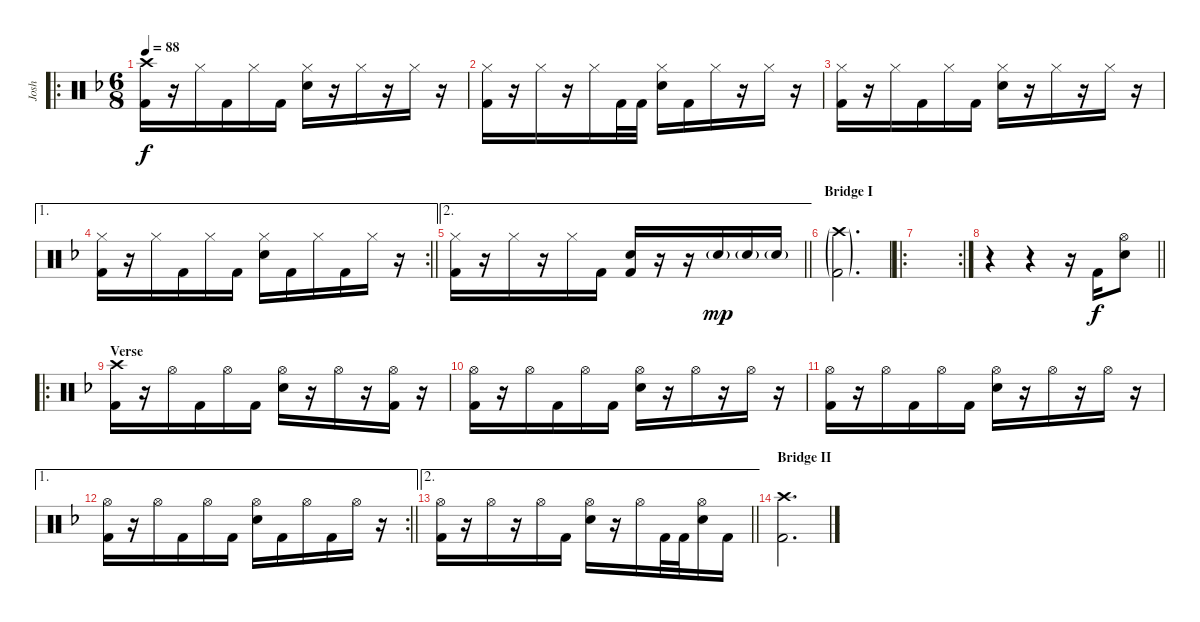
\track ("Josh" "Josh") {instrument percussion}
\staff {score}
\articulation defaults
\ro
\ts (6 8)
\tempo 88
\clef neutral
\ks f
("Crash high (hit)" "Kick (hit) 2").16{dy f} r.16 "Hi-Hat (closed)".16 "Kick (hit) 2".16 "Hi-Hat (closed)".16 "Kick (hit) 2".16 ("Hi-Hat (closed)" "Snare (hit) 2").16 r.16 "Hi-Hat (closed)".16 r.16 "Hi-Hat (closed)".16 r.16 |
("Hi-Hat (closed)" "Kick (hit) 2").16 r.16 "Hi-Hat (closed)".16 r.16 "Hi-Hat (closed)".16 "Kick (hit) 2".32 "Kick (hit) 2".32 ("Hi-Hat (closed)" "Snare (hit) 2").16 "Kick (hit) 2".16 "Hi-Hat (closed)".16 r.16 "Hi-Hat (closed)".16 r.16 |
("Hi-Hat (closed)" "Kick (hit) 2").16 r.16 "Hi-Hat (closed)".16 "Kick (hit) 2".16 "Hi-Hat (closed)".16 "Kick (hit) 2".16 ("Hi-Hat (closed)" "Snare (hit) 2").16 r.16 "Hi-Hat (closed)".16 r.16 "Hi-Hat (closed)".16 r.16 |
\ae 1
\rc 2
\barLineRight lightlight
("Hi-Hat (closed)" "Kick (hit) 2").16 r.16 "Hi-Hat (closed)".16 "Kick (hit) 2".16 "Hi-Hat (closed)".16 "Kick (hit) 2".16 ("Hi-Hat (closed)" "Snare (hit) 2").16 "Kick (hit) 2".16 "Hi-Hat (closed)".16 "Kick (hit) 2".16 "Hi-Hat (closed)".16 r.16 |
\ae 2
\barLineRight lightlight
("Hi-Hat (closed)" "Kick (hit) 2").16 r.16 "Hi-Hat (closed)".16 r.16 "Hi-Hat (closed)".16 "Kick (hit) 2".16 ("Snare (hit) 2" "Kick (hit) 2").16 r.16 r.16 "Snare (hit) 2"{g}.16{dy mp} "Snare (hit) 2"{g}.16 "Snare (hit) 2"{g}.16 |
\section ("" "Bridge I")
("Crash high (hit)"{g} "Kick (hit) 2"{g}).2{d} |
\ro
\rc 2
|
\barLineRight lightlight
r.4 r.4 r.16 "Kick (hit) 2".16{dy f} ("Hi-Hat (open)" "Snare (hit) 2").8 |
\ro
\section ("" "Verse")
("Crash high (hit)" "Kick (hit) 2").16 r.16 "Hi-Hat (open)".16 "Kick (hit) 2".16 "Hi-Hat (open)".16 "Kick (hit) 2".16 ("Hi-Hat (open)" "Snare (hit) 2").16 r.16 "Hi-Hat (open)".16 r.16 ("Hi-Hat (open)" "Kick (hit) 2").16 r.16 |
("Hi-Hat (open)" "Kick (hit) 2").16 r.16 "Hi-Hat (open)".16 "Kick (hit) 2".16 "Hi-Hat (open)".16 "Kick (hit) 2".16 ("Hi-Hat (open)" "Snare (hit) 2").16 r.16 "Hi-Hat (open)".16 r.16 "Hi-Hat (open)".16 r.16 |
("Hi-Hat (open)" "Kick (hit) 2").16 r.16 "Hi-Hat (open)".16 "Kick (hit) 2".16 "Hi-Hat (open)".16 "Kick (hit) 2".16 ("Hi-Hat (open)" "Snare (hit) 2").16 r.16 "Hi-Hat (open)".16 r.16 "Hi-Hat (open)".16 r.16 |
\ae 1
\rc 2
\barLineRight lightlight
("Hi-Hat (open)" "Kick (hit) 2").16 r.16 "Hi-Hat (open)".16 "Kick (hit) 2".16 "Hi-Hat (open)".16 "Kick (hit) 2".16 ("Hi-Hat (open)" "Snare (hit) 2").16 "Kick (hit) 2".16 "Hi-Hat (open)".16 "Kick (hit) 2".16 "Hi-Hat (open)".16 r.16 |
\ae 2
\barLineRight lightlight
("Hi-Hat (open)" "Kick (hit) 2").16 r.16 "Hi-Hat (open)".16 r.16 "Hi-Hat (open)".16 "Kick (hit) 2".16 ("Hi-Hat (open)" "Snare (hit) 2").16 r.16 "Hi-Hat (open)".16 "Kick (hit) 2".32 "Kick (hit) 2".32 ("Hi-Hat (open)" "Snare (hit) 2").16 "Kick (hit) 2".16 |
\section ("" "Bridge II")
("Crash high (hit)" "Kick (hit) 2").2{d}
